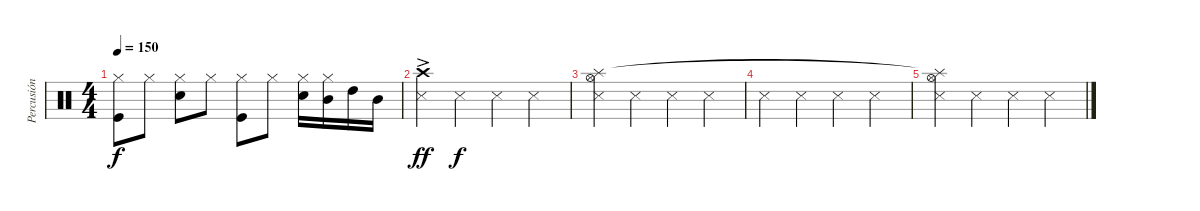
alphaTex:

\track ("Percusión" "Percusión") {instrument percussion}
\staff {score}
\articulation defaults
\ts (4 4)
\tempo 150
\clef neutral
\ks c
("Hi-Hat (closed)" "Kick (hit)").8{dy f} "Hi-Hat (closed)".8 ("Hi-Hat (closed)" "Snare (hit) 2").8 "Hi-Hat (closed)".8 ("Hi-Hat (closed)" "Kick (hit)").8 "Hi-Hat (closed)".8 ("Hi-Hat (closed)" "Snare (hit) 2").16 ("Hi-Hat (closed)" "Mid Tom (hit)").16 "High Tom (hit)".16 "Mid Tom (hit)".16 |
("Snare (side stick) 3" "Crash high (hit)"{ac}).4{dy ff} "Snare (side stick) 3".4{dy f} "Snare (side stick) 3".4 "Snare (side stick) 3".4 |
("Snare (side stick) 3" "Hi-Hat (open)" "Splash (hit)").4 "Snare (side stick) 3".4 "Snare (side stick) 3".4 "Snare (side stick) 3".4 |
"Snare (side stick) 3".4 "Snare (side stick) 3".4 "Snare (side stick) 3".4 "Snare (side stick) 3".4 |
("Snare (side stick) 3" "Hi-Hat (open)" "Splash (hit)"{t}).4 "Snare (side stick) 3".4 "Snare (side stick) 3".4 "Snare (side stick) 3".4
